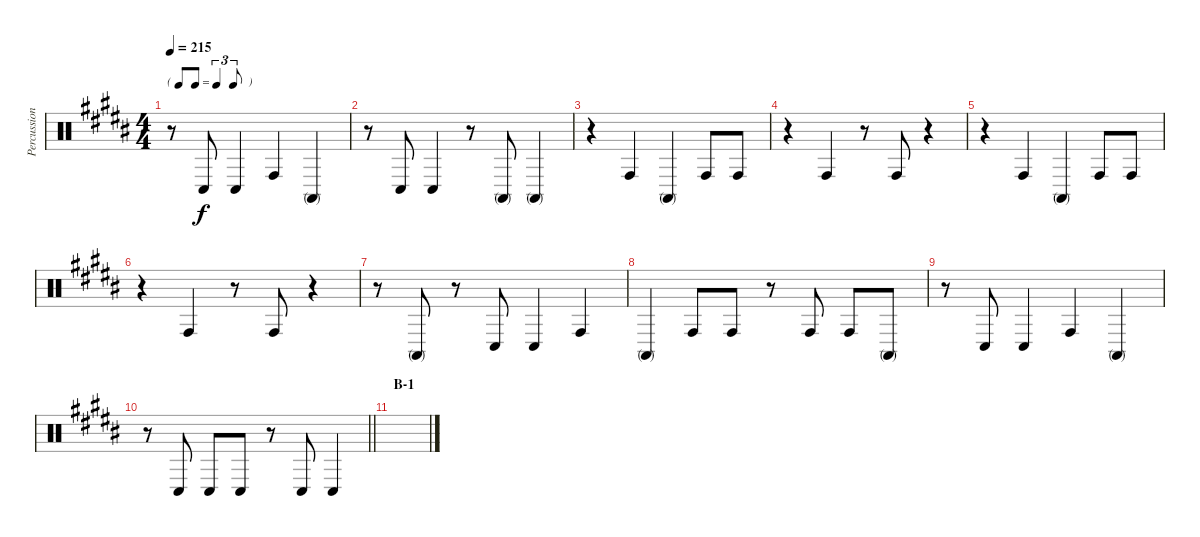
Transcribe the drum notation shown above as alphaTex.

\track ("Percussion A (Tainaka Ritsu)" "Percussion") {instrument percussion}
\staff {score}
\articulation defaults
\ts (4 4)
\tf triplet8th
\tempo 215
\clef neutral
\ks b
r.8{dy f} "Conga low (hit)".8 "Conga low (hit)".4 "Conga high (hit)".4 "Conga high (mute)".4 |
r.8 "Conga low (hit)".8 "Conga low (hit)".4 r.8 "Conga high (mute)".8 "Conga high (mute)".4 |
r.4 "Conga high (hit)".4 "Conga high (mute)".4 "Conga high (hit)".8 "Conga high (hit)".8 |
r.4 "Conga high (hit)".4 r.8 "Conga high (hit)".8 r.4 |
r.4 "Conga high (hit)".4 "Conga high (mute)".4 "Conga high (hit)".8 "Conga high (hit)".8 |
r.4 "Conga high (hit)".4 r.8 "Conga high (hit)".8 r.4 |
r.8 "Conga high (mute)".8 r.8 "Conga low (hit)".8 "Conga low (hit)".4 "Conga high (hit)".4 |
"Conga high (mute)".4 "Conga high (hit)".8 "Conga high (hit)".8 r.8 "Conga high (hit)".8 "Conga high (hit)".8 "Conga high (mute)".8 |
r.8 "Conga low (hit)".8 "Conga low (hit)".4 "Conga high (hit)".4 "Conga high (mute)".4 |
\barLineRight lightlight
r.8 "Conga low (hit)".8 "Conga low (hit)".8 "Conga low (hit)".8 r.8 "Conga low (hit)".8 "Conga low (hit)".4 |
\section ("" "B-1")
